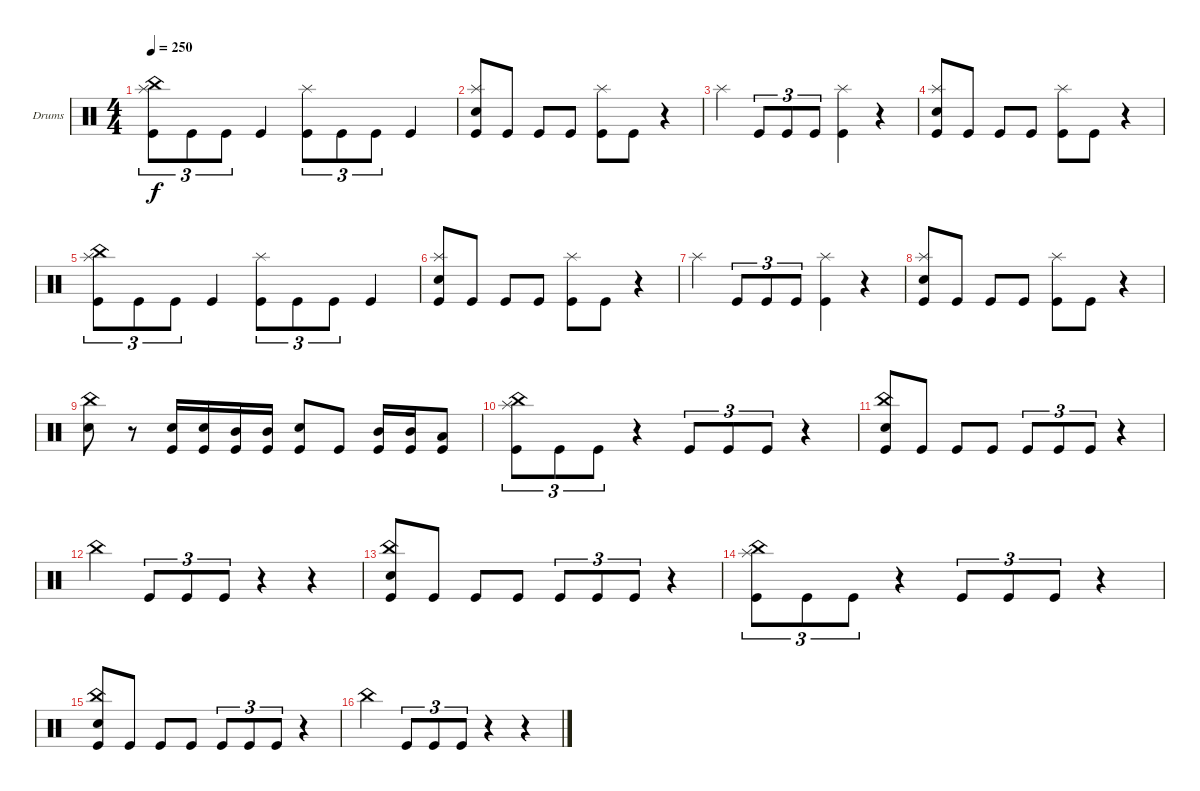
\defaultSystemsLayout 4
\bracketExtendMode groupsimilarinstruments
\firstSystemTrackNameOrientation horizontal
\otherSystemsTrackNameOrientation horizontal
\track ("Drumkit" "Drums") {instrument percussion}
\staff {score}
\articulation defaults
\ts (4 4)
\tempo 250
\clef neutral
\ks c
("Kick (hit)" "China (hit)" "Splash (hit)").8{tu (3 2) dy f} "Kick (hit)".8{tu (3 2)} "Kick (hit)".8{tu (3 2)} "Kick (hit)".4 ("Kick (hit)" "Splash (hit)").8{tu (3 2)} "Kick (hit)".8{tu (3 2)} "Kick (hit)".8{tu (3 2)} "Kick (hit)".4 |
("Kick (hit)" "Splash (hit)" "Snare (hit) 2").8 "Kick (hit)".8 "Kick (hit)".8 "Kick (hit)".8 ("Kick (hit)" "Splash (hit)").8 "Kick (hit)".8 r.4 |
"Splash (hit)".4 "Kick (hit)".8{tu (3 2)} "Kick (hit)".8{tu (3 2)} "Kick (hit)".8{tu (3 2)} ("Splash (hit)" "Kick (hit)").4 r.4 |
("Kick (hit)" "Splash (hit)" "Snare (hit) 2").8 "Kick (hit)".8 "Kick (hit)".8 "Kick (hit)".8 ("Kick (hit)" "Splash (hit)").8 "Kick (hit)".8 r.4 |
("Kick (hit)" "China (hit)" "Splash (hit)").8{tu (3 2)} "Kick (hit)".8{tu (3 2)} "Kick (hit)".8{tu (3 2)} "Kick (hit)".4 ("Kick (hit)" "Splash (hit)").8{tu (3 2)} "Kick (hit)".8{tu (3 2)} "Kick (hit)".8{tu (3 2)} "Kick (hit)".4 |
("Kick (hit)" "Splash (hit)" "Snare (hit) 2").8 "Kick (hit)".8 "Kick (hit)".8 "Kick (hit)".8 ("Kick (hit)" "Splash (hit)").8 "Kick (hit)".8 r.4 |
"Splash (hit)".4 "Kick (hit)".8{tu (3 2)} "Kick (hit)".8{tu (3 2)} "Kick (hit)".8{tu (3 2)} ("Splash (hit)" "Kick (hit)").4 r.4 |
("Kick (hit)" "Splash (hit)" "Snare (hit) 2").8 "Kick (hit)".8 "Kick (hit)".8 "Kick (hit)".8 ("Kick (hit)" "Splash (hit)").8 "Kick (hit)".8 r.4 |
("Snare (hit) 2" "China (hit)").8 r.8 ("Kick (hit)" "Snare (hit) 2").16 ("Kick (hit)" "Snare (hit) 2").16 ("Kick (hit)" "Mid Tom (hit)").16 ("Kick (hit)" "Mid Tom (hit)").16 ("Snare (hit) 2" "Kick (hit)").8 "Kick (hit)".8 ("Kick (hit)" "Mid Tom (hit)").16 ("Kick (hit)" "Mid Tom (hit)").16 ("Low Tom (hit)" "Kick (hit)").8 |
("Kick (hit)" "China (hit)" "Splash (hit)").8{tu (3 2)} "Kick (hit)".8{tu (3 2)} "Kick (hit)".8{tu (3 2)} r.4 "Kick (hit)".8{tu (3 2)} "Kick (hit)".8{tu (3 2)} "Kick (hit)".8{tu (3 2)} r.4 |
("Kick (hit)" "Snare (hit) 2" "China (hit)").8 "Kick (hit)".8 "Kick (hit)".8 "Kick (hit)".8 "Kick (hit)".8{tu (3 2)} "Kick (hit)".8{tu (3 2)} "Kick (hit)".8{tu (3 2)} r.4 |
"China (hit)".4 "Kick (hit)".8{tu (3 2)} "Kick (hit)".8{tu (3 2)} "Kick (hit)".8{tu (3 2)} r.4 r.4 |
("Kick (hit)" "Snare (hit) 2" "China (hit)").8 "Kick (hit)".8 "Kick (hit)".8 "Kick (hit)".8 "Kick (hit)".8{tu (3 2)} "Kick (hit)".8{tu (3 2)} "Kick (hit)".8{tu (3 2)} r.4 |
("Kick (hit)" "China (hit)" "Splash (hit)").8{tu (3 2)} "Kick (hit)".8{tu (3 2)} "Kick (hit)".8{tu (3 2)} r.4 "Kick (hit)".8{tu (3 2)} "Kick (hit)".8{tu (3 2)} "Kick (hit)".8{tu (3 2)} r.4 |
("Kick (hit)" "Snare (hit) 2" "China (hit)").8 "Kick (hit)".8 "Kick (hit)".8 "Kick (hit)".8 "Kick (hit)".8{tu (3 2)} "Kick (hit)".8{tu (3 2)} "Kick (hit)".8{tu (3 2)} r.4 |
"China (hit)".4 "Kick (hit)".8{tu (3 2)} "Kick (hit)".8{tu (3 2)} "Kick (hit)".8{tu (3 2)} r.4 r.4
